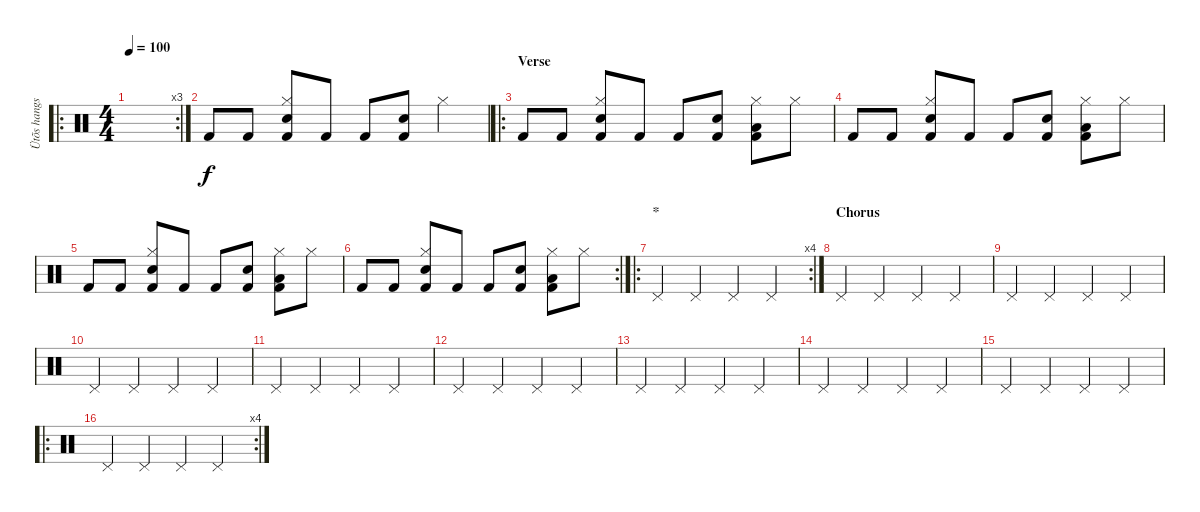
\track ("Ütõs hangszer" "Ütõs hangs") {instrument percussion}
\staff {score}
\articulation defaults
\ro
\rc 3
\ts (4 4)
\tempo 100
\clef neutral
\ks c
|
"Kick (hit) 2".8 "Kick (hit) 2".8 ("Kick (hit) 2" "Hi-Hat (closed)" "Snare (hit) 2").8 "Kick (hit) 2".8 "Kick (hit) 2".8 ("Kick (hit) 2" "Snare (hit) 2").8 "Hi-Hat (closed)".4 |
\ro
\section ("" "Verse")
"Kick (hit) 2".8 "Kick (hit) 2".8 ("Kick (hit) 2" "Hi-Hat (closed)" "Snare (hit) 2").8 "Kick (hit) 2".8 "Kick (hit) 2".8 ("Kick (hit) 2" "Snare (hit) 2").8 ("Kick (hit) 2" "Hi-Hat (closed)" "Low Tom (hit)").8 "Hi-Hat (closed)".8 |
"Kick (hit) 2".8 "Kick (hit) 2".8 ("Kick (hit) 2" "Hi-Hat (closed)" "Snare (hit) 2").8 "Kick (hit) 2".8 "Kick (hit) 2".8 ("Kick (hit) 2" "Snare (hit) 2").8 ("Kick (hit) 2" "Hi-Hat (closed)" "Low Tom (hit)").8 "Hi-Hat (closed)".8 |
"Kick (hit) 2".8 "Kick (hit) 2".8 ("Kick (hit) 2" "Hi-Hat (closed)" "Snare (hit) 2").8 "Kick (hit) 2".8 "Kick (hit) 2".8 ("Kick (hit) 2" "Snare (hit) 2").8 ("Kick (hit) 2" "Hi-Hat (closed)" "Low Tom (hit)").8 "Hi-Hat (closed)".8 |
\rc 2 "Kick (hit) 2".8 "Kick (hit) 2".8
("Kick (hit) 2" "Hi-Hat (closed)" "Snare (hit) 2").8 "Kick (hit) 2".8 "Kick (hit) 2".8 ("Kick (hit) 2" "Snare (hit) 2").8 ("Kick (hit) 2" "Hi-Hat (closed)" "Low Tom (hit)").8 "Hi-Hat (closed)".8 |
\ro
\rc 4
\section ("" "*")
"Pedal Hi-Hat (hit)".4 "Pedal Hi-Hat (hit)".4 "Pedal Hi-Hat (hit)".4 "Pedal Hi-Hat (hit)".4 |
\section ("" "Chorus")
"Pedal Hi-Hat (hit)".4 "Pedal Hi-Hat (hit)".4 "Pedal Hi-Hat (hit)".4 "Pedal Hi-Hat (hit)".4 |
"Pedal Hi-Hat (hit)".4 "Pedal Hi-Hat (hit)".4 "Pedal Hi-Hat (hit)".4 "Pedal Hi-Hat (hit)".4 |
"Pedal Hi-Hat (hit)".4 "Pedal Hi-Hat (hit)".4 "Pedal Hi-Hat (hit)".4 "Pedal Hi-Hat (hit)".4 |
"Pedal Hi-Hat (hit)".4 "Pedal Hi-Hat (hit)".4 "Pedal Hi-Hat (hit)".4 "Pedal Hi-Hat (hit)".4 |
"Pedal Hi-Hat (hit)".4 "Pedal Hi-Hat (hit)".4 "Pedal Hi-Hat (hit)".4 "Pedal Hi-Hat (hit)".4 |
"Pedal Hi-Hat (hit)".4 "Pedal Hi-Hat (hit)".4 "Pedal Hi-Hat (hit)".4 "Pedal Hi-Hat (hit)".4 |
"Pedal Hi-Hat (hit)".4 "Pedal Hi-Hat (hit)".4 "Pedal Hi-Hat (hit)".4 "Pedal Hi-Hat (hit)".4 |
"Pedal Hi-Hat (hit)".4 "Pedal Hi-Hat (hit)".4 "Pedal Hi-Hat (hit)".4 "Pedal Hi-Hat (hit)".4 |
\ro
\rc 4 "Pedal Hi-Hat (hit)".4 "Pedal Hi-Hat (hit)".4 "Pedal Hi-Hat (hit)".4 "Pedal Hi-Hat (hit)".4
